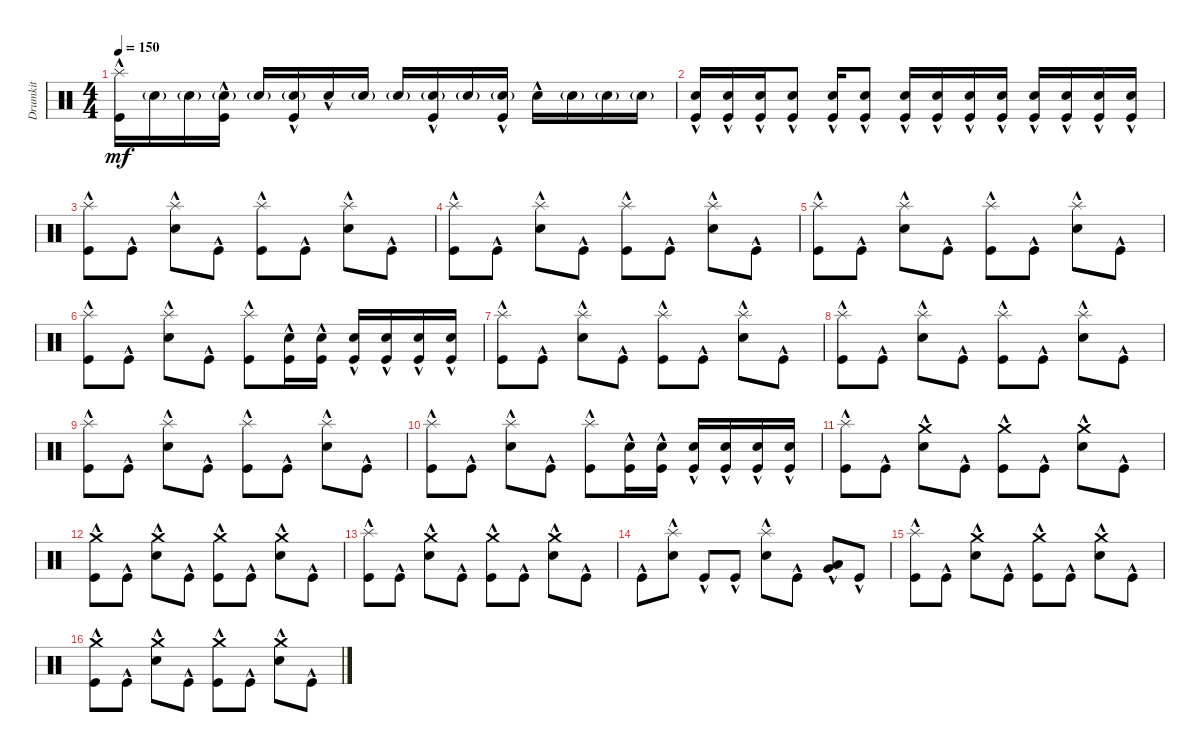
\track ("Drumkit" "Drumkit") {instrument percussion}
\staff {score}
\articulation defaults
\ts (4 4)
\tempo 150
\clef neutral
\ks c
("Kick (hit)"{hac} "Splash (hit)"{hac}).16{dy mf} "Snare (hit) 2"{g}.16 "Snare (hit) 2"{g}.16 ("Snare (hit) 2"{g} "Kick (hit)"{hac}).16 "Snare (hit) 2"{g}.16 ("Snare (hit) 2"{g} "Kick (hit)"{hac}).16 "Snare (hit) 2"{hac}.16 "Snare (hit) 2"{g}.16 "Snare (hit) 2"{g}.16 ("Snare (hit) 2"{g} "Kick (hit)"{hac}).16 "Snare (hit) 2"{g}.16 ("Snare (hit) 2"{g} "Kick (hit)"{hac}).16 "Snare (hit) 2"{hac}.16 "Snare (hit) 2"{g}.16 "Snare (hit) 2"{g}.16 "Snare (hit) 2"{g}.16 |
("Snare (hit) 2"{hac} "Kick (hit)").16 ("Snare (hit) 2"{hac} "Kick (hit)").16 ("Snare (hit) 2"{hac} "Kick (hit)").16 ("Snare (hit) 2"{hac} "Kick (hit)").8 ("Snare (hit) 2"{hac} "Kick (hit)").16 ("Snare (hit) 2"{hac} "Kick (hit)").8 ("Snare (hit) 2"{hac} "Kick (hit)").16 ("Snare (hit) 2"{hac} "Kick (hit)").16 ("Snare (hit) 2"{hac} "Kick (hit)").16 ("Snare (hit) 2"{hac} "Kick (hit)").16 ("Snare (hit) 2"{hac} "Kick (hit)").16 ("Snare (hit) 2"{hac} "Kick (hit)").16 ("Snare (hit) 2"{hac} "Kick (hit)").16 ("Snare (hit) 2"{hac} "Kick (hit)").16 |
("Kick (hit)"{hac} "Splash (hit)"{hac}).8 "Kick (hit)"{hac}.8 ("Snare (hit) 2"{hac} "Splash (hit)"{hac}).8 "Kick (hit)"{hac}.8 ("Kick (hit)"{hac} "Splash (hit)"{hac}).8 "Kick (hit)"{hac}.8 ("Snare (hit) 2"{hac} "Splash (hit)"{hac}).8 "Kick (hit)"{hac}.8 |
("Kick (hit)"{hac} "Splash (hit)"{hac}).8 "Kick (hit)"{hac}.8 ("Snare (hit) 2"{hac} "Splash (hit)"{hac}).8 "Kick (hit)"{hac}.8 ("Kick (hit)"{hac} "Splash (hit)"{hac}).8 "Kick (hit)"{hac}.8 ("Snare (hit) 2"{hac} "Splash (hit)"{hac}).8 "Kick (hit)"{hac}.8 |
("Kick (hit)"{hac} "Splash (hit)"{hac}).8 "Kick (hit)"{hac}.8 ("Snare (hit) 2"{hac} "Splash (hit)"{hac}).8 "Kick (hit)"{hac}.8 ("Kick (hit)"{hac} "Splash (hit)"{hac}).8 "Kick (hit)"{hac}.8 ("Snare (hit) 2"{hac} "Splash (hit)"{hac}).8 "Kick (hit)"{hac}.8 |
("Kick (hit)"{hac} "Splash (hit)"{hac}).8 "Kick (hit)"{hac}.8 ("Snare (hit) 2"{hac} "Splash (hit)"{hac}).8 "Kick (hit)"{hac}.8 ("Kick (hit)"{hac} "Splash (hit)"{hac}).8 ("Snare (hit) 2"{hac} "Kick (hit)").16 ("Snare (hit) 2"{hac} "Kick (hit)").16 ("Snare (hit) 2"{hac} "Kick (hit)").16 ("Snare (hit) 2"{hac} "Kick (hit)").16 ("Snare (hit) 2"{hac} "Kick (hit)").16 ("Snare (hit) 2"{hac} "Kick (hit)").16 |
("Kick (hit)"{hac} "Splash (hit)"{hac}).8 "Kick (hit)"{hac}.8 ("Snare (hit) 2"{hac} "Splash (hit)"{hac}).8 "Kick (hit)"{hac}.8 ("Kick (hit)"{hac} "Splash (hit)"{hac}).8 "Kick (hit)"{hac}.8 ("Snare (hit) 2"{hac} "Splash (hit)"{hac}).8 "Kick (hit)"{hac}.8 |
("Kick (hit)"{hac} "Splash (hit)"{hac}).8 "Kick (hit)"{hac}.8 ("Snare (hit) 2"{hac} "Splash (hit)"{hac}).8 "Kick (hit)"{hac}.8 ("Kick (hit)"{hac} "Splash (hit)"{hac}).8 "Kick (hit)"{hac}.8 ("Snare (hit) 2"{hac} "Splash (hit)"{hac}).8 "Kick (hit)"{hac}.8 |
("Kick (hit)"{hac} "Splash (hit)"{hac}).8 "Kick (hit)"{hac}.8 ("Snare (hit) 2"{hac} "Splash (hit)"{hac}).8 "Kick (hit)"{hac}.8 ("Kick (hit)"{hac} "Splash (hit)"{hac}).8 "Kick (hit)"{hac}.8 ("Snare (hit) 2"{hac} "Splash (hit)"{hac}).8 "Kick (hit)"{hac}.8 |
("Kick (hit)"{hac} "Splash (hit)"{hac}).8 "Kick (hit)"{hac}.8 ("Snare (hit) 2"{hac} "Splash (hit)"{hac}).8 "Kick (hit)"{hac}.8 ("Kick (hit)"{hac} "Splash (hit)"{hac}).8 ("Snare (hit) 2"{hac} "Kick (hit)").16 ("Snare (hit) 2"{hac} "Kick (hit)").16 ("Snare (hit) 2"{hac} "Kick (hit)").16 ("Snare (hit) 2"{hac} "Kick (hit)").16 ("Snare (hit) 2"{hac} "Kick (hit)").16 ("Snare (hit) 2"{hac} "Kick (hit)").16 |
("Kick (hit)"{hac} "Splash (hit)"{hac}).8 "Kick (hit)"{hac}.8 ("Snare (hit) 2"{hac} "Crash medium (hit)").8 "Kick (hit)"{hac}.8 ("Kick (hit)"{hac} "Crash medium (hit)").8 "Kick (hit)"{hac}.8 ("Snare (hit) 2"{hac} "Crash medium (hit)").8 "Kick (hit)"{hac}.8 |
("Kick (hit)"{hac} "Crash medium (hit)").8 "Kick (hit)"{hac}.8 ("Snare (hit) 2"{hac} "Crash medium (hit)").8 "Kick (hit)"{hac}.8 ("Kick (hit)"{hac} "Crash medium (hit)").8 "Kick (hit)"{hac}.8 ("Snare (hit) 2"{hac} "Crash medium (hit)").8 "Kick (hit)"{hac}.8 |
("Kick (hit)"{hac} "Splash (hit)"{hac}).8 "Kick (hit)"{hac}.8 ("Snare (hit) 2"{hac} "Crash medium (hit)").8 "Kick (hit)"{hac}.8 ("Kick (hit)"{hac} "Crash medium (hit)").8 "Kick (hit)"{hac}.8 ("Snare (hit) 2"{hac} "Crash medium (hit)").8 "Kick (hit)"{hac}.8 |
"Kick (hit)"{hac}.8 ("Snare (hit) 2"{hac} "Splash (hit)"{hac}).8 "Kick (hit)"{hac}.8 "Kick (hit)"{hac}.8 ("Snare (hit) 2"{hac} "Splash (hit)"{hac}).8 "Kick (hit)"{hac}.8 ("Low Tom (hit)"{hac} "Very Low Tom (hit)"{hac}).8 "Kick (hit)"{hac}.8 |
("Kick (hit)"{hac} "Splash (hit)"{hac}).8 "Kick (hit)"{hac}.8 ("Snare (hit) 2"{hac} "Crash medium (hit)").8 "Kick (hit)"{hac}.8 ("Kick (hit)"{hac} "Crash medium (hit)").8 "Kick (hit)"{hac}.8 ("Snare (hit) 2"{hac} "Crash medium (hit)").8 "Kick (hit)"{hac}.8 |
("Kick (hit)"{hac} "Crash medium (hit)").8 "Kick (hit)"{hac}.8 ("Snare (hit) 2"{hac} "Crash medium (hit)").8 "Kick (hit)"{hac}.8 ("Kick (hit)"{hac} "Crash medium (hit)").8 "Kick (hit)"{hac}.8 ("Snare (hit) 2"{hac} "Crash medium (hit)").8 "Kick (hit)"{hac}.8
